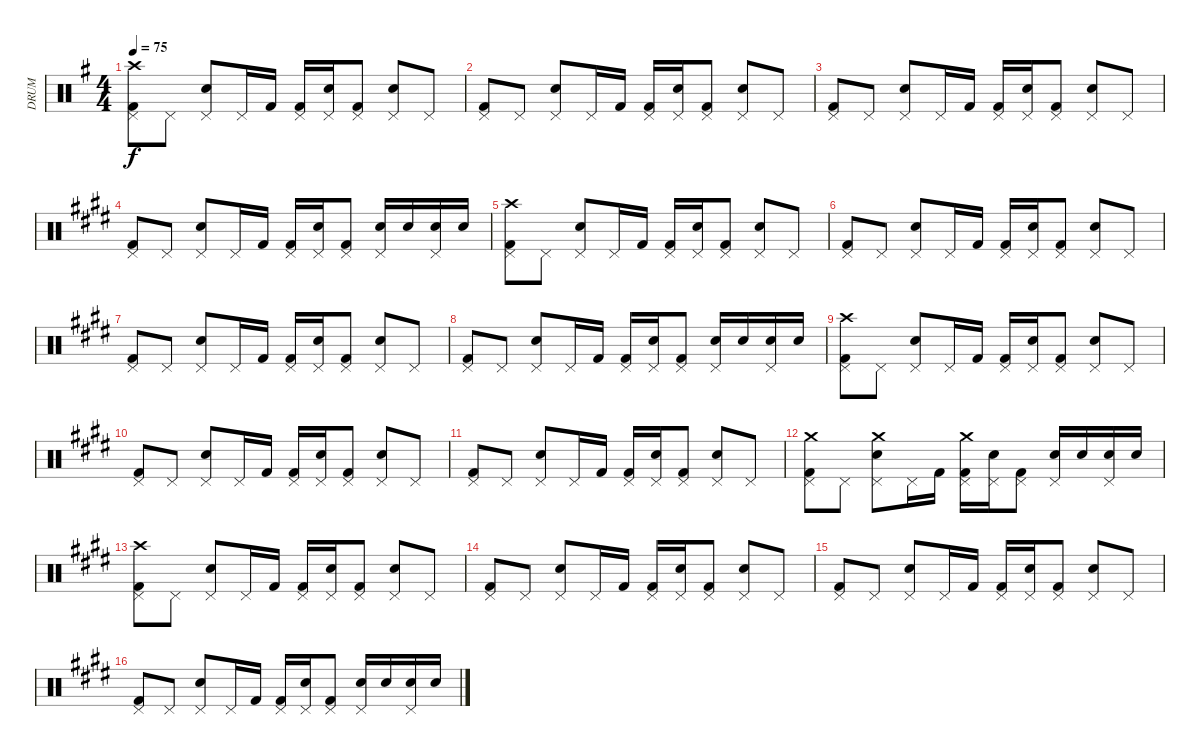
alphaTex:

\track ("DRUM" "DRUM") {instrument percussion}
\staff {score}
\articulation defaults
\ts (4 4)
\tempo 75
\clef neutral
\ks g
("Crash high (hit)" "Pedal Hi-Hat (hit)" "Kick (hit) 2").8{dy f} "Pedal Hi-Hat (hit)".8 ("Pedal Hi-Hat (hit)" "Electric Snare (hit)").8 "Pedal Hi-Hat (hit)".16 "Kick (hit) 2".16 ("Pedal Hi-Hat (hit)" "Kick (hit) 2").16 ("Pedal Hi-Hat (hit)" "Electric Snare (hit)").16 ("Pedal Hi-Hat (hit)" "Kick (hit) 2").8 ("Pedal Hi-Hat (hit)" "Electric Snare (hit)").8 "Pedal Hi-Hat (hit)".8 |
("Pedal Hi-Hat (hit)" "Kick (hit) 2").8 "Pedal Hi-Hat (hit)".8 ("Pedal Hi-Hat (hit)" "Electric Snare (hit)").8 "Pedal Hi-Hat (hit)".16 "Kick (hit) 2".16 ("Pedal Hi-Hat (hit)" "Kick (hit) 2").16 ("Pedal Hi-Hat (hit)" "Electric Snare (hit)").16 ("Pedal Hi-Hat (hit)" "Kick (hit) 2").8 ("Pedal Hi-Hat (hit)" "Electric Snare (hit)").8 "Pedal Hi-Hat (hit)".8 |
("Pedal Hi-Hat (hit)" "Kick (hit) 2").8 "Pedal Hi-Hat (hit)".8 ("Pedal Hi-Hat (hit)" "Electric Snare (hit)").8 "Pedal Hi-Hat (hit)".16 "Kick (hit) 2".16 ("Pedal Hi-Hat (hit)" "Kick (hit) 2").16 ("Pedal Hi-Hat (hit)" "Electric Snare (hit)").16 ("Pedal Hi-Hat (hit)" "Kick (hit) 2").8 ("Pedal Hi-Hat (hit)" "Electric Snare (hit)").8 "Pedal Hi-Hat (hit)".8 |
\ks e
("Pedal Hi-Hat (hit)" "Kick (hit) 2").8 "Pedal Hi-Hat (hit)".8 ("Pedal Hi-Hat (hit)" "Electric Snare (hit)").8 "Pedal Hi-Hat (hit)".16 "Kick (hit) 2".16 ("Pedal Hi-Hat (hit)" "Kick (hit) 2").16 ("Pedal Hi-Hat (hit)" "Electric Snare (hit)").16 ("Pedal Hi-Hat (hit)" "Kick (hit) 2").8 ("Pedal Hi-Hat (hit)" "Electric Snare (hit)").16 "Electric Snare (hit)".16 ("Pedal Hi-Hat (hit)" "Electric Snare (hit)").16 "Electric Snare (hit)".16 |
("Crash high (hit)" "Pedal Hi-Hat (hit)" "Kick (hit) 2").8 "Pedal Hi-Hat (hit)".8 ("Pedal Hi-Hat (hit)" "Electric Snare (hit)").8 "Pedal Hi-Hat (hit)".16 "Kick (hit) 2".16 ("Pedal Hi-Hat (hit)" "Kick (hit) 2").16 ("Pedal Hi-Hat (hit)" "Electric Snare (hit)").16 ("Pedal Hi-Hat (hit)" "Kick (hit) 2").8 ("Pedal Hi-Hat (hit)" "Electric Snare (hit)").8 "Pedal Hi-Hat (hit)".8 |
("Pedal Hi-Hat (hit)" "Kick (hit) 2").8 "Pedal Hi-Hat (hit)".8 ("Pedal Hi-Hat (hit)" "Electric Snare (hit)").8 "Pedal Hi-Hat (hit)".16 "Kick (hit) 2".16 ("Pedal Hi-Hat (hit)" "Kick (hit) 2").16 ("Pedal Hi-Hat (hit)" "Electric Snare (hit)").16 ("Pedal Hi-Hat (hit)" "Kick (hit) 2").8 ("Pedal Hi-Hat (hit)" "Electric Snare (hit)").8 "Pedal Hi-Hat (hit)".8 |
("Pedal Hi-Hat (hit)" "Kick (hit) 2").8 "Pedal Hi-Hat (hit)".8 ("Pedal Hi-Hat (hit)" "Electric Snare (hit)").8 "Pedal Hi-Hat (hit)".16 "Kick (hit) 2".16 ("Pedal Hi-Hat (hit)" "Kick (hit) 2").16 ("Pedal Hi-Hat (hit)" "Electric Snare (hit)").16 ("Pedal Hi-Hat (hit)" "Kick (hit) 2").8 ("Pedal Hi-Hat (hit)" "Electric Snare (hit)").8 "Pedal Hi-Hat (hit)".8 |
("Pedal Hi-Hat (hit)" "Kick (hit) 2").8 "Pedal Hi-Hat (hit)".8 ("Pedal Hi-Hat (hit)" "Electric Snare (hit)").8 "Pedal Hi-Hat (hit)".16 "Kick (hit) 2".16 ("Pedal Hi-Hat (hit)" "Kick (hit) 2").16 ("Pedal Hi-Hat (hit)" "Electric Snare (hit)").16 ("Pedal Hi-Hat (hit)" "Kick (hit) 2").8 ("Pedal Hi-Hat (hit)" "Electric Snare (hit)").16 "Electric Snare (hit)".16 ("Pedal Hi-Hat (hit)" "Electric Snare (hit)").16 "Electric Snare (hit)".16 |
("Crash high (hit)" "Pedal Hi-Hat (hit)" "Kick (hit) 2").8 "Pedal Hi-Hat (hit)".8 ("Pedal Hi-Hat (hit)" "Electric Snare (hit)").8 "Pedal Hi-Hat (hit)".16 "Kick (hit) 2".16 ("Pedal Hi-Hat (hit)" "Kick (hit) 2").16 ("Pedal Hi-Hat (hit)" "Electric Snare (hit)").16 ("Pedal Hi-Hat (hit)" "Kick (hit) 2").8 ("Pedal Hi-Hat (hit)" "Electric Snare (hit)").8 "Pedal Hi-Hat (hit)".8 |
("Pedal Hi-Hat (hit)" "Kick (hit) 2").8 "Pedal Hi-Hat (hit)".8 ("Pedal Hi-Hat (hit)" "Electric Snare (hit)").8 "Pedal Hi-Hat (hit)".16 "Kick (hit) 2".16 ("Pedal Hi-Hat (hit)" "Kick (hit) 2").16 ("Pedal Hi-Hat (hit)" "Electric Snare (hit)").16 ("Pedal Hi-Hat (hit)" "Kick (hit) 2").8 ("Pedal Hi-Hat (hit)" "Electric Snare (hit)").8 "Pedal Hi-Hat (hit)".8 |
("Pedal Hi-Hat (hit)" "Kick (hit) 2").8 "Pedal Hi-Hat (hit)".8 ("Pedal Hi-Hat (hit)" "Electric Snare (hit)").8 "Pedal Hi-Hat (hit)".16 "Kick (hit) 2".16 ("Pedal Hi-Hat (hit)" "Kick (hit) 2").16 ("Pedal Hi-Hat (hit)" "Electric Snare (hit)").16 ("Pedal Hi-Hat (hit)" "Kick (hit) 2").8 ("Pedal Hi-Hat (hit)" "Electric Snare (hit)").8 "Pedal Hi-Hat (hit)".8 |
("Crash medium (hit)" "Pedal Hi-Hat (hit)" "Kick (hit) 2").8 "Pedal Hi-Hat (hit)".8 ("Crash medium (hit)" "Pedal Hi-Hat (hit)" "Electric Snare (hit)").8 "Pedal Hi-Hat (hit)".16 "Kick (hit) 2".16 ("Crash medium (hit)" "Pedal Hi-Hat (hit)" "Kick (hit) 2").16 ("Pedal Hi-Hat (hit)" "Electric Snare (hit)").16 ("Pedal Hi-Hat (hit)" "Kick (hit) 2").8 ("Pedal Hi-Hat (hit)" "Electric Snare (hit)").16 "Electric Snare (hit)".16 ("Pedal Hi-Hat (hit)" "Electric Snare (hit)").16 "Electric Snare (hit)".16 |
("Crash high (hit)" "Pedal Hi-Hat (hit)" "Kick (hit) 2").8 "Pedal Hi-Hat (hit)".8 ("Pedal Hi-Hat (hit)" "Electric Snare (hit)").8 "Pedal Hi-Hat (hit)".16 "Kick (hit) 2".16 ("Pedal Hi-Hat (hit)" "Kick (hit) 2").16 ("Pedal Hi-Hat (hit)" "Electric Snare (hit)").16 ("Pedal Hi-Hat (hit)" "Kick (hit) 2").8 ("Pedal Hi-Hat (hit)" "Electric Snare (hit)").8 "Pedal Hi-Hat (hit)".8 |
("Pedal Hi-Hat (hit)" "Kick (hit) 2").8 "Pedal Hi-Hat (hit)".8 ("Pedal Hi-Hat (hit)" "Electric Snare (hit)").8 "Pedal Hi-Hat (hit)".16 "Kick (hit) 2".16 ("Pedal Hi-Hat (hit)" "Kick (hit) 2").16 ("Pedal Hi-Hat (hit)" "Electric Snare (hit)").16 ("Pedal Hi-Hat (hit)" "Kick (hit) 2").8 ("Pedal Hi-Hat (hit)" "Electric Snare (hit)").8 "Pedal Hi-Hat (hit)".8 |
("Pedal Hi-Hat (hit)" "Kick (hit) 2").8 "Pedal Hi-Hat (hit)".8 ("Pedal Hi-Hat (hit)" "Electric Snare (hit)").8 "Pedal Hi-Hat (hit)".16 "Kick (hit) 2".16 ("Pedal Hi-Hat (hit)" "Kick (hit) 2").16 ("Pedal Hi-Hat (hit)" "Electric Snare (hit)").16 ("Pedal Hi-Hat (hit)" "Kick (hit) 2").8 ("Pedal Hi-Hat (hit)" "Electric Snare (hit)").8 "Pedal Hi-Hat (hit)".8 |
("Pedal Hi-Hat (hit)" "Kick (hit) 2").8 "Pedal Hi-Hat (hit)".8 ("Pedal Hi-Hat (hit)" "Electric Snare (hit)").8 "Pedal Hi-Hat (hit)".16 "Kick (hit) 2".16 ("Pedal Hi-Hat (hit)" "Kick (hit) 2").16 ("Pedal Hi-Hat (hit)" "Electric Snare (hit)").16 ("Pedal Hi-Hat (hit)" "Kick (hit) 2").8 ("Pedal Hi-Hat (hit)" "Electric Snare (hit)").16 "Electric Snare (hit)".16 ("Pedal Hi-Hat (hit)" "Electric Snare (hit)").16 "Electric Snare (hit)".16
